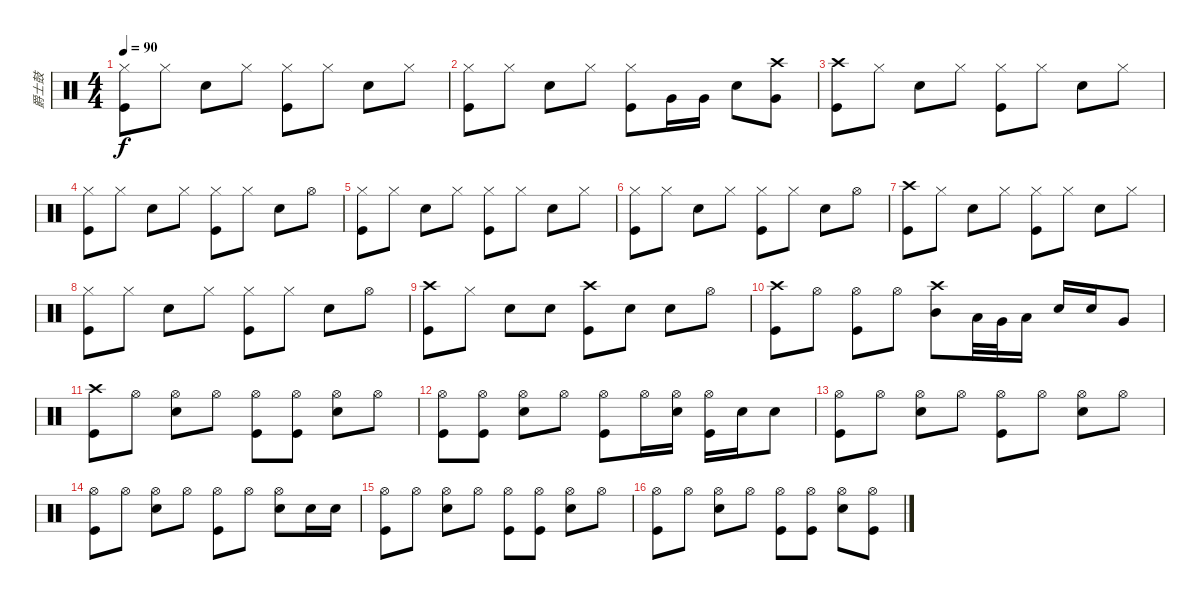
\track ("爵士鼓" "爵士鼓") {instrument percussion}
\staff {score}
\articulation defaults
\ts (4 4)
\tempo 90
\clef neutral
\ks c
("Hi-Hat (closed)" "Kick (hit)").8{dy f} "Hi-Hat (closed)".8 "Snare (hit) 2".8 "Hi-Hat (closed)".8 ("Hi-Hat (closed)" "Kick (hit)").8 "Hi-Hat (closed)".8 "Snare (hit) 2".8 "Hi-Hat (closed)".8 |
("Hi-Hat (closed)" "Kick (hit)").8 "Hi-Hat (closed)".8 "Snare (hit) 2".8 "Hi-Hat (closed)".8 ("Hi-Hat (closed)" "Kick (hit)").8 "Very Low Tom (hit)".16 "Very Low Tom (hit)".16 "Snare (hit) 2".8 ("Crash high (hit)" "Very Low Tom (hit)").8 |
("Crash high (hit)" "Kick (hit)").8 "Hi-Hat (closed)".8 "Snare (hit) 2".8 "Hi-Hat (closed)".8 ("Hi-Hat (closed)" "Kick (hit)").8 "Hi-Hat (closed)".8 "Snare (hit) 2".8 "Hi-Hat (closed)".8 |
("Hi-Hat (closed)" "Kick (hit)").8 "Hi-Hat (closed)".8 "Snare (hit) 2".8 "Hi-Hat (closed)".8 ("Hi-Hat (closed)" "Kick (hit)").8 "Hi-Hat (closed)".8 "Snare (hit) 2".8 "Hi-Hat (open)".8 |
("Hi-Hat (closed)" "Kick (hit)").8 "Hi-Hat (closed)".8 "Snare (hit) 2".8 "Hi-Hat (closed)".8 ("Hi-Hat (closed)" "Kick (hit)").8 "Hi-Hat (closed)".8 "Snare (hit) 2".8 "Hi-Hat (closed)".8 |
("Hi-Hat (closed)" "Kick (hit)").8 "Hi-Hat (closed)".8 "Snare (hit) 2".8 "Hi-Hat (closed)".8 ("Hi-Hat (closed)" "Kick (hit)").8 "Hi-Hat (closed)".8 "Snare (hit) 2".8 "Hi-Hat (open)".8 |
("Crash high (hit)" "Kick (hit)").8 "Hi-Hat (closed)".8 "Snare (hit) 2".8 "Hi-Hat (closed)".8 ("Hi-Hat (closed)" "Kick (hit)").8 "Hi-Hat (closed)".8 "Snare (hit) 2".8 "Hi-Hat (closed)".8 |
("Hi-Hat (closed)" "Kick (hit)").8 "Hi-Hat (closed)".8 "Snare (hit) 2".8 "Hi-Hat (closed)".8 ("Hi-Hat (closed)" "Kick (hit)").8 "Hi-Hat (closed)".8 "Snare (hit) 2".8 "Hi-Hat (open)".8 |
("Crash high (hit)" "Kick (hit)").8 "Hi-Hat (closed)".8 "Snare (hit) 2".8 "Snare (hit) 2".8 ("Crash high (hit)" "Kick (hit)").8 "Snare (hit) 2".8 "Snare (hit) 2".8 "Hi-Hat (open)".8 |
("Crash high (hit)" "Kick (hit)").8 "Hi-Hat (open)".8 ("Hi-Hat (open)" "Kick (hit)").8 "Hi-Hat (open)".8 ("Crash high (hit)" "Mid Tom (hit)").8 "Low Tom (hit)".32 "Very Low Tom (hit)".32 "Low Floor Tom (hit)".16 "Snare (hit) 2".16 "Snare (hit) 2".16 "Very Low Tom (hit)".8 |
("Crash high (hit)" "Kick (hit)").8 "Hi-Hat (open)".8 ("Hi-Hat (open)" "Snare (hit) 2").8 "Hi-Hat (open)".8 ("Hi-Hat (open)" "Kick (hit)").8 ("Hi-Hat (open)" "Kick (hit)").8 ("Hi-Hat (open)" "Snare (hit) 2").8 "Hi-Hat (open)".8 |
("Hi-Hat (open)" "Kick (hit)").8 ("Hi-Hat (open)" "Kick (hit)").8 ("Hi-Hat (open)" "Snare (hit) 2").8 "Hi-Hat (open)".8 ("Hi-Hat (open)" "Kick (hit)").8 "Hi-Hat (open)".16 ("Hi-Hat (open)" "Snare (hit) 2").16 ("Hi-Hat (open)" "Kick (hit)").16 "Snare (hit) 2".16 "Snare (hit) 2".8 |
("Hi-Hat (open)" "Kick (hit)").8 "Hi-Hat (open)".8 ("Hi-Hat (open)" "Snare (hit) 2").8 "Hi-Hat (open)".8 ("Hi-Hat (open)" "Kick (hit)").8 "Hi-Hat (open)".8 ("Hi-Hat (open)" "Snare (hit) 2").8 "Hi-Hat (open)".8 |
("Hi-Hat (open)" "Kick (hit)").8 "Hi-Hat (open)".8 ("Hi-Hat (open)" "Snare (hit) 2").8 "Hi-Hat (open)".8 ("Hi-Hat (open)" "Kick (hit)").8 "Hi-Hat (open)".8 ("Hi-Hat (open)" "Snare (hit) 2").8 "Snare (hit) 2".16 "Snare (hit) 2".16 |
("Hi-Hat (open)" "Kick (hit)").8 "Hi-Hat (open)".8 ("Hi-Hat (open)" "Snare (hit) 2").8 "Hi-Hat (open)".8 ("Hi-Hat (open)" "Kick (hit)").8 ("Hi-Hat (open)" "Kick (hit)").8 ("Hi-Hat (open)" "Snare (hit) 2").8 "Hi-Hat (open)".8 |
("Hi-Hat (open)" "Kick (hit)").8 "Hi-Hat (open)".8 ("Hi-Hat (open)" "Snare (hit) 2").8 "Hi-Hat (open)".8 ("Hi-Hat (open)" "Kick (hit)").8 ("Hi-Hat (open)" "Kick (hit)").8 ("Hi-Hat (open)" "Snare (hit) 2").8 ("Hi-Hat (open)" "Kick (hit)").8
